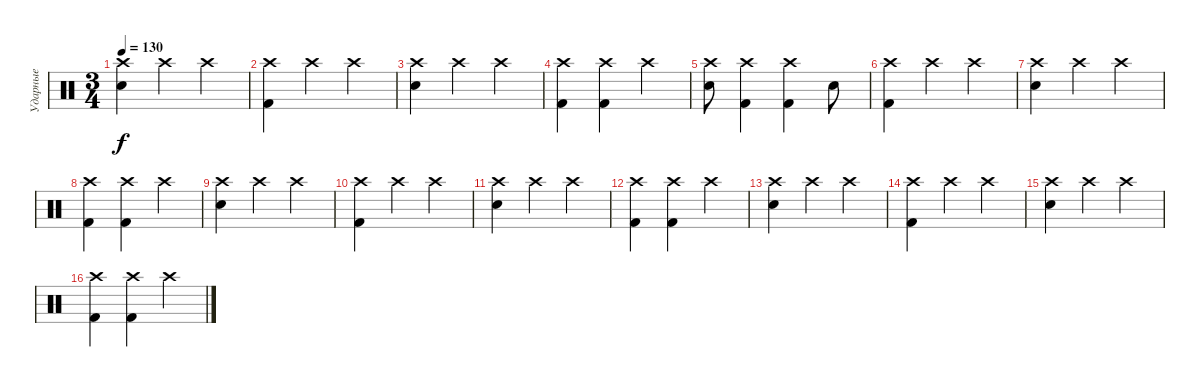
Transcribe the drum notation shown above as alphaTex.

\track ("Ударные" "Ударные") {instrument percussion}
\staff {score}
\articulation defaults
\ts (3 4)
\tempo 130
\clef neutral
\ks c
("Crash high (hit)" "Electric Snare (hit)").4{dy f} "Crash high (hit)".4 "Crash high (hit)".4 |
("Crash high (hit)" "Kick (hit) 2").4 "Crash high (hit)".4 "Crash high (hit)".4 |
("Crash high (hit)" "Electric Snare (hit)").4 "Crash high (hit)".4 "Crash high (hit)".4 |
("Crash high (hit)" "Kick (hit) 2").4 ("Crash high (hit)" "Kick (hit) 2").4 "Crash high (hit)".4 |
("Crash high (hit)" "Electric Snare (hit)").8 ("Crash high (hit)" "Kick (hit) 2").4 ("Crash high (hit)" "Kick (hit) 2").4 "Electric Snare (hit)".8 |
("Crash high (hit)" "Kick (hit) 2").4 "Crash high (hit)".4 "Crash high (hit)".4 |
("Crash high (hit)" "Electric Snare (hit)").4 "Crash high (hit)".4 "Crash high (hit)".4 |
("Crash high (hit)" "Kick (hit) 2").4 ("Crash high (hit)" "Kick (hit) 2").4 "Crash high (hit)".4 |
("Crash high (hit)" "Electric Snare (hit)").4 "Crash high (hit)".4 "Crash high (hit)".4 |
("Crash high (hit)" "Kick (hit) 2").4 "Crash high (hit)".4 "Crash high (hit)".4 |
("Crash high (hit)" "Electric Snare (hit)").4 "Crash high (hit)".4 "Crash high (hit)".4 |
("Crash high (hit)" "Kick (hit) 2").4 ("Crash high (hit)" "Kick (hit) 2").4 "Crash high (hit)".4 |
("Crash high (hit)" "Electric Snare (hit)").4 "Crash high (hit)".4 "Crash high (hit)".4 |
("Crash high (hit)" "Kick (hit) 2").4 "Crash high (hit)".4 "Crash high (hit)".4 |
("Crash high (hit)" "Electric Snare (hit)").4 "Crash high (hit)".4 "Crash high (hit)".4 |
("Crash high (hit)" "Kick (hit) 2").4 ("Crash high (hit)" "Kick (hit) 2").4 "Crash high (hit)".4
